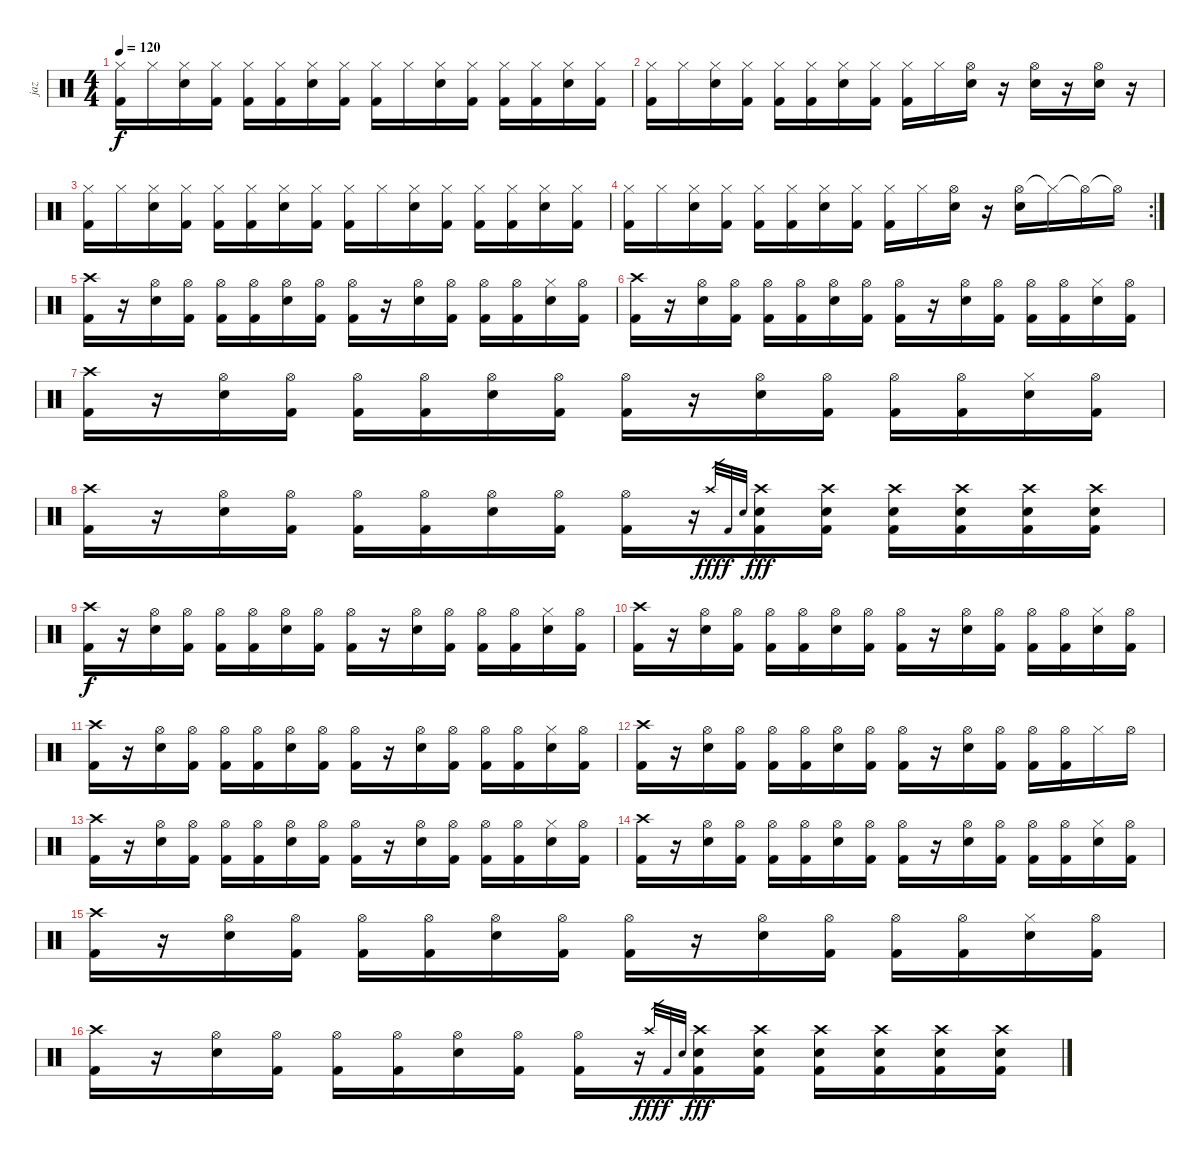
\track ("jaz" "jaz") {instrument percussion}
\staff {score}
\articulation defaults
\ts (4 4)
\tempo 120
\clef neutral
\ks c
("Hi-Hat (closed)" "Kick (hit) 2").16{dy f} "Hi-Hat (closed)".16 ("Hi-Hat (closed)" "Electric Snare (hit)").16 ("Hi-Hat (closed)" "Kick (hit) 2").16 ("Hi-Hat (closed)" "Kick (hit) 2").16 ("Hi-Hat (closed)" "Kick (hit) 2").16 ("Hi-Hat (closed)" "Electric Snare (hit)").16 ("Hi-Hat (closed)" "Kick (hit) 2").16 ("Hi-Hat (closed)" "Kick (hit) 2").16 "Hi-Hat (closed)".16 ("Hi-Hat (closed)" "Electric Snare (hit)").16 ("Hi-Hat (closed)" "Kick (hit) 2").16 ("Hi-Hat (closed)" "Kick (hit) 2").16 ("Hi-Hat (closed)" "Kick (hit) 2").16 ("Hi-Hat (closed)" "Electric Snare (hit)").16 ("Hi-Hat (closed)" "Kick (hit) 2").16 |
("Hi-Hat (closed)" "Kick (hit) 2").16 "Hi-Hat (closed)".16 ("Hi-Hat (closed)" "Electric Snare (hit)").16 ("Hi-Hat (closed)" "Kick (hit) 2").16 ("Hi-Hat (closed)" "Kick (hit) 2").16 ("Hi-Hat (closed)" "Kick (hit) 2").16 ("Hi-Hat (closed)" "Electric Snare (hit)").16 ("Hi-Hat (closed)" "Kick (hit) 2").16 ("Hi-Hat (closed)" "Kick (hit) 2").16 "Hi-Hat (closed)".16 ("Hi-Hat (open)" "Electric Snare (hit)").16 r.16 ("Hi-Hat (open)" "Electric Snare (hit)").16 r.16 ("Hi-Hat (open)" "Electric Snare (hit)").16 r.16 |
("Hi-Hat (closed)" "Kick (hit) 2").16 "Hi-Hat (closed)".16 ("Hi-Hat (closed)" "Electric Snare (hit)").16 ("Hi-Hat (closed)" "Kick (hit) 2").16 ("Hi-Hat (closed)" "Kick (hit) 2").16 ("Hi-Hat (closed)" "Kick (hit) 2").16 ("Hi-Hat (closed)" "Electric Snare (hit)").16 ("Hi-Hat (closed)" "Kick (hit) 2").16 ("Hi-Hat (closed)" "Kick (hit) 2").16 "Hi-Hat (closed)".16 ("Hi-Hat (closed)" "Electric Snare (hit)").16 ("Hi-Hat (closed)" "Kick (hit) 2").16 ("Hi-Hat (closed)" "Kick (hit) 2").16 ("Hi-Hat (closed)" "Kick (hit) 2").16 ("Hi-Hat (closed)" "Electric Snare (hit)").16 ("Hi-Hat (closed)" "Kick (hit) 2").16 |
\rc 2
("Hi-Hat (closed)" "Kick (hit) 2").16 "Hi-Hat (closed)".16 ("Hi-Hat (closed)" "Electric Snare (hit)").16 ("Hi-Hat (closed)" "Kick (hit) 2").16 ("Hi-Hat (closed)" "Kick (hit) 2").16 ("Hi-Hat (closed)" "Kick (hit) 2").16 ("Hi-Hat (closed)" "Electric Snare (hit)").16 ("Hi-Hat (closed)" "Kick (hit) 2").16 ("Hi-Hat (closed)" "Kick (hit) 2").16 "Hi-Hat (closed)".16 ("Hi-Hat (open)" "Electric Snare (hit)").16 r.16 ("Hi-Hat (open)" "Electric Snare (hit)").16 "Hi-Hat (closed)"{t}.16 "Hi-Hat (open)"{t}.16 "Hi-Hat (open)"{t}.16 |
("Crash high (hit)" "Kick (hit) 2").16 r.16 ("Hi-Hat (open)" "Electric Snare (hit)").16 ("Hi-Hat (open)" "Kick (hit) 2").16 ("Hi-Hat (open)" "Kick (hit) 2").16 ("Hi-Hat (open)" "Kick (hit) 2").16 ("Hi-Hat (open)" "Electric Snare (hit)").16 ("Hi-Hat (open)" "Kick (hit) 2").16 ("Hi-Hat (open)" "Kick (hit) 2").16 r.16 ("Hi-Hat (open)" "Electric Snare (hit)").16 ("Hi-Hat (open)" "Kick (hit) 2").16 ("Hi-Hat (open)" "Kick (hit) 2").16 ("Hi-Hat (open)" "Kick (hit) 2").16 ("Hi-Hat (closed)" "Electric Snare (hit)").16 ("Hi-Hat (open)" "Kick (hit) 2").16 |
("Crash high (hit)" "Kick (hit) 2").16 r.16 ("Hi-Hat (open)" "Electric Snare (hit)").16 ("Hi-Hat (open)" "Kick (hit) 2").16 ("Hi-Hat (open)" "Kick (hit) 2").16 ("Hi-Hat (open)" "Kick (hit) 2").16 ("Hi-Hat (open)" "Electric Snare (hit)").16 ("Hi-Hat (open)" "Kick (hit) 2").16 ("Hi-Hat (open)" "Kick (hit) 2").16 r.16 ("Hi-Hat (open)" "Electric Snare (hit)").16 ("Hi-Hat (open)" "Kick (hit) 2").16 ("Hi-Hat (open)" "Kick (hit) 2").16 ("Hi-Hat (open)" "Kick (hit) 2").16 ("Hi-Hat (closed)" "Electric Snare (hit)").16 ("Hi-Hat (open)" "Kick (hit) 2").16 |
("Crash high (hit)" "Kick (hit) 2").16 r.16 ("Hi-Hat (open)" "Electric Snare (hit)").16 ("Hi-Hat (open)" "Kick (hit) 2").16 ("Hi-Hat (open)" "Kick (hit) 2").16 ("Hi-Hat (open)" "Kick (hit) 2").16 ("Hi-Hat (open)" "Electric Snare (hit)").16 ("Hi-Hat (open)" "Kick (hit) 2").16 ("Hi-Hat (open)" "Kick (hit) 2").16 r.16 ("Hi-Hat (open)" "Electric Snare (hit)").16 ("Hi-Hat (open)" "Kick (hit) 2").16 ("Hi-Hat (open)" "Kick (hit) 2").16 ("Hi-Hat (open)" "Kick (hit) 2").16 ("Hi-Hat (closed)" "Electric Snare (hit)").16 ("Hi-Hat (open)" "Kick (hit) 2").16 |
("Crash high (hit)" "Kick (hit) 2").16 r.16 ("Hi-Hat (open)" "Electric Snare (hit)").16 ("Hi-Hat (open)" "Kick (hit) 2").16 ("Hi-Hat (open)" "Kick (hit) 2").16 ("Hi-Hat (open)" "Kick (hit) 2").16 ("Hi-Hat (open)" "Electric Snare (hit)").16 ("Hi-Hat (open)" "Kick (hit) 2").16 ("Hi-Hat (open)" "Kick (hit) 2").16 r.16 "Crash high (hit)".32{gr dy fff} "Kick (hit) 2".32{gr dy f} "Electric Snare (hit)".32{gr} ("Crash high (hit)" "Kick (hit) 2" "Electric Snare (hit)").16{dy fff} ("Crash high (hit)" "Kick (hit) 2" "Electric Snare (hit)").16 ("Crash high (hit)" "Kick (hit) 2" "Electric Snare (hit)").16 ("Crash high (hit)" "Kick (hit) 2" "Electric Snare (hit)").16 ("Crash high (hit)" "Kick (hit) 2" "Electric Snare (hit)").16 ("Crash high (hit)" "Kick (hit) 2" "Electric Snare (hit)").16 |
("Crash high (hit)" "Kick (hit) 2").16{dy f} r.16 ("Hi-Hat (open)" "Electric Snare (hit)").16 ("Hi-Hat (open)" "Kick (hit) 2").16 ("Hi-Hat (open)" "Kick (hit) 2").16 ("Hi-Hat (open)" "Kick (hit) 2").16 ("Hi-Hat (open)" "Electric Snare (hit)").16 ("Hi-Hat (open)" "Kick (hit) 2").16 ("Hi-Hat (open)" "Kick (hit) 2").16 r.16 ("Hi-Hat (open)" "Electric Snare (hit)").16 ("Hi-Hat (open)" "Kick (hit) 2").16 ("Hi-Hat (open)" "Kick (hit) 2").16 ("Hi-Hat (open)" "Kick (hit) 2").16 ("Hi-Hat (closed)" "Electric Snare (hit)").16 ("Hi-Hat (open)" "Kick (hit) 2").16 |
("Crash high (hit)" "Kick (hit) 2").16 r.16 ("Hi-Hat (open)" "Electric Snare (hit)").16 ("Hi-Hat (open)" "Kick (hit) 2").16 ("Hi-Hat (open)" "Kick (hit) 2").16 ("Hi-Hat (open)" "Kick (hit) 2").16 ("Hi-Hat (open)" "Electric Snare (hit)").16 ("Hi-Hat (open)" "Kick (hit) 2").16 ("Hi-Hat (open)" "Kick (hit) 2").16 r.16 ("Hi-Hat (open)" "Electric Snare (hit)").16 ("Hi-Hat (open)" "Kick (hit) 2").16 ("Hi-Hat (open)" "Kick (hit) 2").16 ("Hi-Hat (open)" "Kick (hit) 2").16 ("Hi-Hat (closed)" "Electric Snare (hit)").16 ("Hi-Hat (open)" "Kick (hit) 2").16 |
("Crash high (hit)" "Kick (hit) 2").16 r.16 ("Hi-Hat (open)" "Electric Snare (hit)").16 ("Hi-Hat (open)" "Kick (hit) 2").16 ("Hi-Hat (open)" "Kick (hit) 2").16 ("Hi-Hat (open)" "Kick (hit) 2").16 ("Hi-Hat (open)" "Electric Snare (hit)").16 ("Hi-Hat (open)" "Kick (hit) 2").16 ("Hi-Hat (open)" "Kick (hit) 2").16 r.16 ("Hi-Hat (open)" "Electric Snare (hit)").16 ("Hi-Hat (open)" "Kick (hit) 2").16 ("Hi-Hat (open)" "Kick (hit) 2").16 ("Hi-Hat (open)" "Kick (hit) 2").16 ("Hi-Hat (closed)" "Electric Snare (hit)").16 ("Hi-Hat (open)" "Kick (hit) 2").16 |
("Crash high (hit)" "Kick (hit) 2").16 r.16 ("Hi-Hat (open)" "Electric Snare (hit)").16 ("Hi-Hat (open)" "Kick (hit) 2").16 ("Hi-Hat (open)" "Kick (hit) 2").16 ("Hi-Hat (open)" "Kick (hit) 2").16 ("Hi-Hat (open)" "Electric Snare (hit)").16 ("Hi-Hat (open)" "Kick (hit) 2").16 ("Hi-Hat (open)" "Kick (hit) 2").16 r.16 ("Hi-Hat (open)" "Electric Snare (hit)").16 ("Hi-Hat (open)" "Kick (hit) 2").16 ("Hi-Hat (open)" "Kick (hit) 2").16 ("Hi-Hat (open)" "Kick (hit) 2").16 "Hi-Hat (closed)".16 "Hi-Hat (open)".16 |
("Crash high (hit)" "Kick (hit) 2").16 r.16 ("Hi-Hat (open)" "Electric Snare (hit)").16 ("Hi-Hat (open)" "Kick (hit) 2").16 ("Hi-Hat (open)" "Kick (hit) 2").16 ("Hi-Hat (open)" "Kick (hit) 2").16 ("Hi-Hat (open)" "Electric Snare (hit)").16 ("Hi-Hat (open)" "Kick (hit) 2").16 ("Hi-Hat (open)" "Kick (hit) 2").16 r.16 ("Hi-Hat (open)" "Electric Snare (hit)").16 ("Hi-Hat (open)" "Kick (hit) 2").16 ("Hi-Hat (open)" "Kick (hit) 2").16 ("Hi-Hat (open)" "Kick (hit) 2").16 ("Hi-Hat (closed)" "Electric Snare (hit)").16 ("Hi-Hat (open)" "Kick (hit) 2").16 |
("Crash high (hit)" "Kick (hit) 2").16 r.16 ("Hi-Hat (open)" "Electric Snare (hit)").16 ("Hi-Hat (open)" "Kick (hit) 2").16 ("Hi-Hat (open)" "Kick (hit) 2").16 ("Hi-Hat (open)" "Kick (hit) 2").16 ("Hi-Hat (open)" "Electric Snare (hit)").16 ("Hi-Hat (open)" "Kick (hit) 2").16 ("Hi-Hat (open)" "Kick (hit) 2").16 r.16 ("Hi-Hat (open)" "Electric Snare (hit)").16 ("Hi-Hat (open)" "Kick (hit) 2").16 ("Hi-Hat (open)" "Kick (hit) 2").16 ("Hi-Hat (open)" "Kick (hit) 2").16 ("Hi-Hat (closed)" "Electric Snare (hit)").16 ("Hi-Hat (open)" "Kick (hit) 2").16 |
("Crash high (hit)" "Kick (hit) 2").16 r.16 ("Hi-Hat (open)" "Electric Snare (hit)").16 ("Hi-Hat (open)" "Kick (hit) 2").16 ("Hi-Hat (open)" "Kick (hit) 2").16 ("Hi-Hat (open)" "Kick (hit) 2").16 ("Hi-Hat (open)" "Electric Snare (hit)").16 ("Hi-Hat (open)" "Kick (hit) 2").16 ("Hi-Hat (open)" "Kick (hit) 2").16 r.16 ("Hi-Hat (open)" "Electric Snare (hit)").16 ("Hi-Hat (open)" "Kick (hit) 2").16 ("Hi-Hat (open)" "Kick (hit) 2").16 ("Hi-Hat (open)" "Kick (hit) 2").16 ("Hi-Hat (closed)" "Electric Snare (hit)").16 ("Hi-Hat (open)" "Kick (hit) 2").16 |
("Crash high (hit)" "Kick (hit) 2").16 r.16 ("Hi-Hat (open)" "Electric Snare (hit)").16 ("Hi-Hat (open)" "Kick (hit) 2").16 ("Hi-Hat (open)" "Kick (hit) 2").16 ("Hi-Hat (open)" "Kick (hit) 2").16 ("Hi-Hat (open)" "Electric Snare (hit)").16 ("Hi-Hat (open)" "Kick (hit) 2").16 ("Hi-Hat (open)" "Kick (hit) 2").16 r.16 "Crash high (hit)".32{gr dy fff} "Kick (hit) 2".32{gr dy f} "Electric Snare (hit)".32{gr} ("Crash high (hit)" "Kick (hit) 2" "Electric Snare (hit)").16{dy fff} ("Crash high (hit)" "Kick (hit) 2" "Electric Snare (hit)").16 ("Crash high (hit)" "Kick (hit) 2" "Electric Snare (hit)").16 ("Crash high (hit)" "Kick (hit) 2" "Electric Snare (hit)").16 ("Crash high (hit)" "Kick (hit) 2" "Electric Snare (hit)").16 ("Crash high (hit)" "Kick (hit) 2" "Electric Snare (hit)").16
